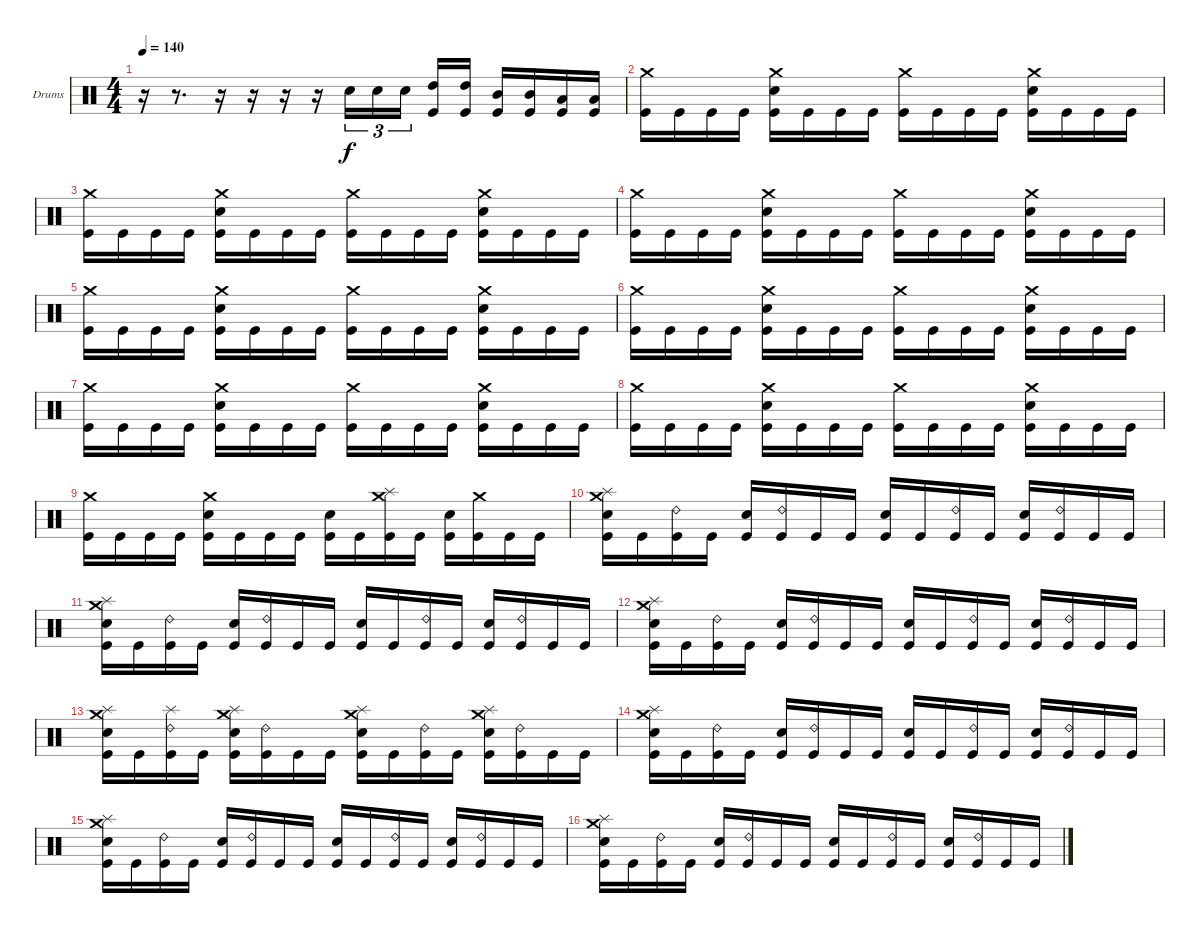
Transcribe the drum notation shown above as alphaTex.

\bracketExtendMode groupsimilarinstruments
\firstSystemTrackNameOrientation horizontal
\otherSystemsTrackNameOrientation horizontal
\track ("Drumkit" "Drums") {instrument percussion}
\staff {score}
\articulation defaults
\ts (4 4)
\tempo 140
\clef neutral
\ks c
r.16{dy f} r.8{d} r.16 r.16 r.16 r.16 "Snare (hit) 2".16{tu (3 2)} "Snare (hit) 2".16{tu (3 2)} "Snare (hit) 2".16{tu (3 2)} ("High Tom (hit)" "Kick (hit)").16 ("High Tom (hit)" "Kick (hit)").16 ("Mid Tom (hit)" "Kick (hit)").16 ("Mid Tom (hit)" "Kick (hit)").16 ("Low Tom (hit)" "Kick (hit)").16 ("Low Tom (hit)" "Kick (hit)").16 |
("Crash medium (hit)" "Kick (hit)").16 "Kick (hit)".16 "Kick (hit)".16 "Kick (hit)".16 ("Crash medium (hit)" "Snare (hit) 2" "Kick (hit)").16 "Kick (hit)".16 "Kick (hit)".16 "Kick (hit)".16 ("Crash medium (hit)" "Kick (hit)").16 "Kick (hit)".16 "Kick (hit)".16 "Kick (hit)".16 ("Crash medium (hit)" "Snare (hit) 2" "Kick (hit)").16 "Kick (hit)".16 "Kick (hit)".16 "Kick (hit)".16 |
("Crash medium (hit)" "Kick (hit)").16 "Kick (hit)".16 "Kick (hit)".16 "Kick (hit)".16 ("Crash medium (hit)" "Snare (hit) 2" "Kick (hit)").16 "Kick (hit)".16 "Kick (hit)".16 "Kick (hit)".16 ("Crash medium (hit)" "Kick (hit)").16 "Kick (hit)".16 "Kick (hit)".16 "Kick (hit)".16 ("Crash medium (hit)" "Snare (hit) 2" "Kick (hit)").16 "Kick (hit)".16 "Kick (hit)".16 "Kick (hit)".16 |
("Crash medium (hit)" "Kick (hit)").16 "Kick (hit)".16 "Kick (hit)".16 "Kick (hit)".16 ("Crash medium (hit)" "Snare (hit) 2" "Kick (hit)").16 "Kick (hit)".16 "Kick (hit)".16 "Kick (hit)".16 ("Crash medium (hit)" "Kick (hit)").16 "Kick (hit)".16 "Kick (hit)".16 "Kick (hit)".16 ("Crash medium (hit)" "Snare (hit) 2" "Kick (hit)").16 "Kick (hit)".16 "Kick (hit)".16 "Kick (hit)".16 |
("Crash medium (hit)" "Kick (hit)").16 "Kick (hit)".16 "Kick (hit)".16 "Kick (hit)".16 ("Crash medium (hit)" "Snare (hit) 2" "Kick (hit)").16 "Kick (hit)".16 "Kick (hit)".16 "Kick (hit)".16 ("Crash medium (hit)" "Kick (hit)").16 "Kick (hit)".16 "Kick (hit)".16 "Kick (hit)".16 ("Crash medium (hit)" "Snare (hit) 2" "Kick (hit)").16 "Kick (hit)".16 "Kick (hit)".16 "Kick (hit)".16 |
("Crash medium (hit)" "Kick (hit)").16 "Kick (hit)".16 "Kick (hit)".16 "Kick (hit)".16 ("Crash medium (hit)" "Snare (hit) 2" "Kick (hit)").16 "Kick (hit)".16 "Kick (hit)".16 "Kick (hit)".16 ("Crash medium (hit)" "Kick (hit)").16 "Kick (hit)".16 "Kick (hit)".16 "Kick (hit)".16 ("Crash medium (hit)" "Snare (hit) 2" "Kick (hit)").16 "Kick (hit)".16 "Kick (hit)".16 "Kick (hit)".16 |
("Crash medium (hit)" "Kick (hit)").16 "Kick (hit)".16 "Kick (hit)".16 "Kick (hit)".16 ("Crash medium (hit)" "Snare (hit) 2" "Kick (hit)").16 "Kick (hit)".16 "Kick (hit)".16 "Kick (hit)".16 ("Crash medium (hit)" "Kick (hit)").16 "Kick (hit)".16 "Kick (hit)".16 "Kick (hit)".16 ("Crash medium (hit)" "Snare (hit) 2" "Kick (hit)").16 "Kick (hit)".16 "Kick (hit)".16 "Kick (hit)".16 |
("Crash medium (hit)" "Kick (hit)").16 "Kick (hit)".16 "Kick (hit)".16 "Kick (hit)".16 ("Crash medium (hit)" "Snare (hit) 2" "Kick (hit)").16 "Kick (hit)".16 "Kick (hit)".16 "Kick (hit)".16 ("Crash medium (hit)" "Kick (hit)").16 "Kick (hit)".16 "Kick (hit)".16 "Kick (hit)".16 ("Crash medium (hit)" "Snare (hit) 2" "Kick (hit)").16 "Kick (hit)".16 "Kick (hit)".16 "Kick (hit)".16 |
("Crash medium (hit)" "Kick (hit)").16 "Kick (hit)".16 "Kick (hit)".16 "Kick (hit)".16 ("Crash medium (hit)" "Snare (hit) 2" "Kick (hit)").16 "Kick (hit)".16 "Kick (hit)".16 "Kick (hit)".16 ("Snare (hit) 2" "Kick (hit)").16 "Kick (hit)".16 ("Crash medium (hit)" "Splash (hit)" "Kick (hit)").16 "Kick (hit)".16 ("Snare (hit) 2" "Kick (hit)").16 ("Crash medium (hit)" "Kick (hit)").16 "Kick (hit)".16 "Kick (hit)".16 |
("Crash medium (hit)" "Splash (hit)" "Snare (hit) 2" "Kick (hit)").16 "Kick (hit)".16 ("Ride (bell) 2" "Kick (hit)").16 "Kick (hit)".16 ("Snare (hit) 2" "Kick (hit)").16 ("Ride (bell) 2" "Kick (hit)").16 "Kick (hit)".16 "Kick (hit)".16 ("Snare (hit) 2" "Kick (hit)").16 "Kick (hit)".16 ("Ride (bell) 2" "Kick (hit)").16 "Kick (hit)".16 ("Snare (hit) 2" "Kick (hit)").16 ("Ride (bell) 2" "Kick (hit)").16 "Kick (hit)".16 "Kick (hit)".16 |
("Crash medium (hit)" "Splash (hit)" "Snare (hit) 2" "Kick (hit)").16 "Kick (hit)".16 ("Ride (bell) 2" "Kick (hit)").16 "Kick (hit)".16 ("Snare (hit) 2" "Kick (hit)").16 ("Ride (bell) 2" "Kick (hit)").16 "Kick (hit)".16 "Kick (hit)".16 ("Snare (hit) 2" "Kick (hit)").16 "Kick (hit)".16 ("Ride (bell) 2" "Kick (hit)").16 "Kick (hit)".16 ("Snare (hit) 2" "Kick (hit)").16 ("Ride (bell) 2" "Kick (hit)").16 "Kick (hit)".16 "Kick (hit)".16 |
("Crash medium (hit)" "Splash (hit)" "Snare (hit) 2" "Kick (hit)").16 "Kick (hit)".16 ("Ride (bell) 2" "Kick (hit)").16 "Kick (hit)".16 ("Snare (hit) 2" "Kick (hit)").16 ("Ride (bell) 2" "Kick (hit)").16 "Kick (hit)".16 "Kick (hit)".16 ("Snare (hit) 2" "Kick (hit)").16 "Kick (hit)".16 ("Ride (bell) 2" "Kick (hit)").16 "Kick (hit)".16 ("Snare (hit) 2" "Kick (hit)").16 ("Ride (bell) 2" "Kick (hit)").16 "Kick (hit)".16 "Kick (hit)".16 |
("Crash medium (hit)" "Splash (hit)" "Snare (hit) 2" "Kick (hit)").16 "Kick (hit)".16 ("Splash (hit)" "Ride (bell) 2" "Kick (hit)").16 "Kick (hit)".16 ("Splash (hit)" "Crash medium (hit)" "Snare (hit) 2" "Kick (hit)").16 ("Ride (bell) 2" "Kick (hit)").16 "Kick (hit)".16 "Kick (hit)".16 ("Crash medium (hit)" "Splash (hit)" "Snare (hit) 2" "Kick (hit)").16 "Kick (hit)".16 ("Ride (bell) 2" "Kick (hit)").16 "Kick (hit)".16 ("Splash (hit)" "Crash medium (hit)" "Snare (hit) 2" "Kick (hit)").16 ("Ride (bell) 2" "Kick (hit)").16 "Kick (hit)".16 "Kick (hit)".16 |
("Crash medium (hit)" "Splash (hit)" "Snare (hit) 2" "Kick (hit)").16 "Kick (hit)".16 ("Ride (bell) 2" "Kick (hit)").16 "Kick (hit)".16 ("Snare (hit) 2" "Kick (hit)").16 ("Ride (bell) 2" "Kick (hit)").16 "Kick (hit)".16 "Kick (hit)".16 ("Snare (hit) 2" "Kick (hit)").16 "Kick (hit)".16 ("Ride (bell) 2" "Kick (hit)").16 "Kick (hit)".16 ("Snare (hit) 2" "Kick (hit)").16 ("Ride (bell) 2" "Kick (hit)").16 "Kick (hit)".16 "Kick (hit)".16 |
("Crash medium (hit)" "Splash (hit)" "Snare (hit) 2" "Kick (hit)").16 "Kick (hit)".16 ("Ride (bell) 2" "Kick (hit)").16 "Kick (hit)".16 ("Snare (hit) 2" "Kick (hit)").16 ("Ride (bell) 2" "Kick (hit)").16 "Kick (hit)".16 "Kick (hit)".16 ("Snare (hit) 2" "Kick (hit)").16 "Kick (hit)".16 ("Ride (bell) 2" "Kick (hit)").16 "Kick (hit)".16 ("Snare (hit) 2" "Kick (hit)").16 ("Ride (bell) 2" "Kick (hit)").16 "Kick (hit)".16 "Kick (hit)".16 |
("Crash medium (hit)" "Splash (hit)" "Snare (hit) 2" "Kick (hit)").16 "Kick (hit)".16 ("Ride (bell) 2" "Kick (hit)").16 "Kick (hit)".16 ("Snare (hit) 2" "Kick (hit)").16 ("Ride (bell) 2" "Kick (hit)").16 "Kick (hit)".16 "Kick (hit)".16 ("Snare (hit) 2" "Kick (hit)").16 "Kick (hit)".16 ("Ride (bell) 2" "Kick (hit)").16 "Kick (hit)".16 ("Snare (hit) 2" "Kick (hit)").16 ("Ride (bell) 2" "Kick (hit)").16 "Kick (hit)".16 "Kick (hit)".16
